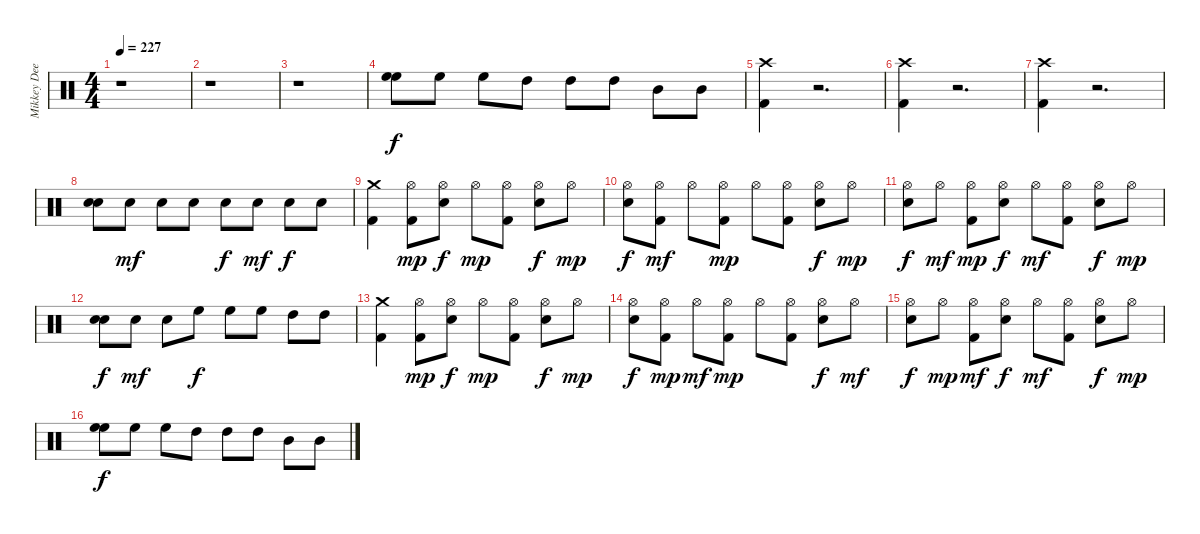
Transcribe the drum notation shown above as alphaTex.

\track ("Mikkey Dee" "Mikkey Dee") {instrument percussion}
\staff {score}
\articulation defaults
\ts (4 4)
\tempo 227
\clef neutral
\ks c
r.1{dy f} |
r.1 |
r.1 |
("High Floor Tom (hit)" "High Floor Tom (hit)").8 "High Floor Tom (hit)".8 "High Floor Tom (hit)".8 "High Tom (hit)".8 "High Tom (hit)".8 "High Tom (hit)".8 "Mid Tom (hit)".8 "Mid Tom (hit)".8 |
("Kick (hit) 2" "Crash high (hit)").4 r.2{d} |
("Crash high (hit)" "Kick (hit) 2").4 r.2{d} |
("Crash high (hit)" "Kick (hit) 2").4 r.2{d} |
("Electric Snare (hit)" "Electric Snare (hit)").8 "Electric Snare (hit)".8{dy mf} "Electric Snare (hit)".8 "Electric Snare (hit)".8 "Electric Snare (hit)".8{dy f} "Electric Snare (hit)".8{dy mf} "Electric Snare (hit)".8{dy f} "Electric Snare (hit)".8 |
("Kick (hit) 2" "Crash medium (hit)").4 ("Kick (hit) 2" "Hi-Hat (open)").8{dy mp} ("Hi-Hat (open)" "Electric Snare (hit)").8{dy f} "Hi-Hat (open)".8{dy mp} ("Hi-Hat (open)" "Kick (hit) 2").8 ("Hi-Hat (open)" "Electric Snare (hit)").8{dy f} "Hi-Hat (open)".8{dy mp} |
("Hi-Hat (open)" "Electric Snare (hit)").8{dy f} ("Hi-Hat (open)" "Kick (hit) 2").8{dy mf} "Hi-Hat (open)".8 ("Kick (hit) 2" "Hi-Hat (open)").8{dy mp} "Hi-Hat (open)".8 ("Hi-Hat (open)" "Kick (hit) 2").8 ("Hi-Hat (open)" "Electric Snare (hit)").8{dy f} "Hi-Hat (open)".8{dy mp} |
("Hi-Hat (open)" "Electric Snare (hit)").8{dy f} "Hi-Hat (open)".8{dy mf} ("Hi-Hat (open)" "Kick (hit) 2").8{dy mp} ("Hi-Hat (open)" "Electric Snare (hit)").8{dy f} "Hi-Hat (open)".8{dy mf} ("Hi-Hat (open)" "Kick (hit) 2").8 ("Hi-Hat (open)" "Electric Snare (hit)").8{dy f} "Hi-Hat (open)".8{dy mp} |
("Electric Snare (hit)" "Electric Snare (hit)").8{dy f} "Electric Snare (hit)".8{dy mf} "Electric Snare (hit)".8 "High Floor Tom (hit)".8{dy f} "High Floor Tom (hit)".8 "High Floor Tom (hit)".8 "High Tom (hit)".8 "High Tom (hit)".8 |
("Crash medium (hit)" "Kick (hit) 2").4 ("Hi-Hat (open)" "Kick (hit) 2").8{dy mp} ("Hi-Hat (open)" "Electric Snare (hit)").8{dy f} "Hi-Hat (open)".8{dy mp} ("Hi-Hat (open)" "Kick (hit) 2").8 ("Electric Snare (hit)" "Hi-Hat (open)").8{dy f} "Hi-Hat (open)".8{dy mp} |
("Electric Snare (hit)" "Hi-Hat (open)").8{dy f} ("Kick (hit) 2" "Hi-Hat (open)").8{dy mp} "Hi-Hat (open)".8{dy mf} ("Kick (hit) 2" "Hi-Hat (open)").8{dy mp} "Hi-Hat (open)".8 ("Hi-Hat (open)" "Kick (hit) 2").8 ("Electric Snare (hit)" "Hi-Hat (open)").8{dy f} "Hi-Hat (open)".8{dy mf} |
("Electric Snare (hit)" "Hi-Hat (open)").8{dy f} "Hi-Hat (open)".8{dy mp} ("Kick (hit) 2" "Hi-Hat (open)").8{dy mf} ("Electric Snare (hit)" "Hi-Hat (open)").8{dy f} "Hi-Hat (open)".8{dy mf} ("Hi-Hat (open)" "Kick (hit) 2").8 ("Hi-Hat (open)" "Electric Snare (hit)").8{dy f} "Hi-Hat (open)".8{dy mp} |
("High Floor Tom (hit)" "High Floor Tom (hit)").8{dy f} "High Floor Tom (hit)".8 "High Floor Tom (hit)".8 "High Tom (hit)".8 "High Tom (hit)".8 "High Tom (hit)".8 "Mid Tom (hit)".8 "Mid Tom (hit)".8
